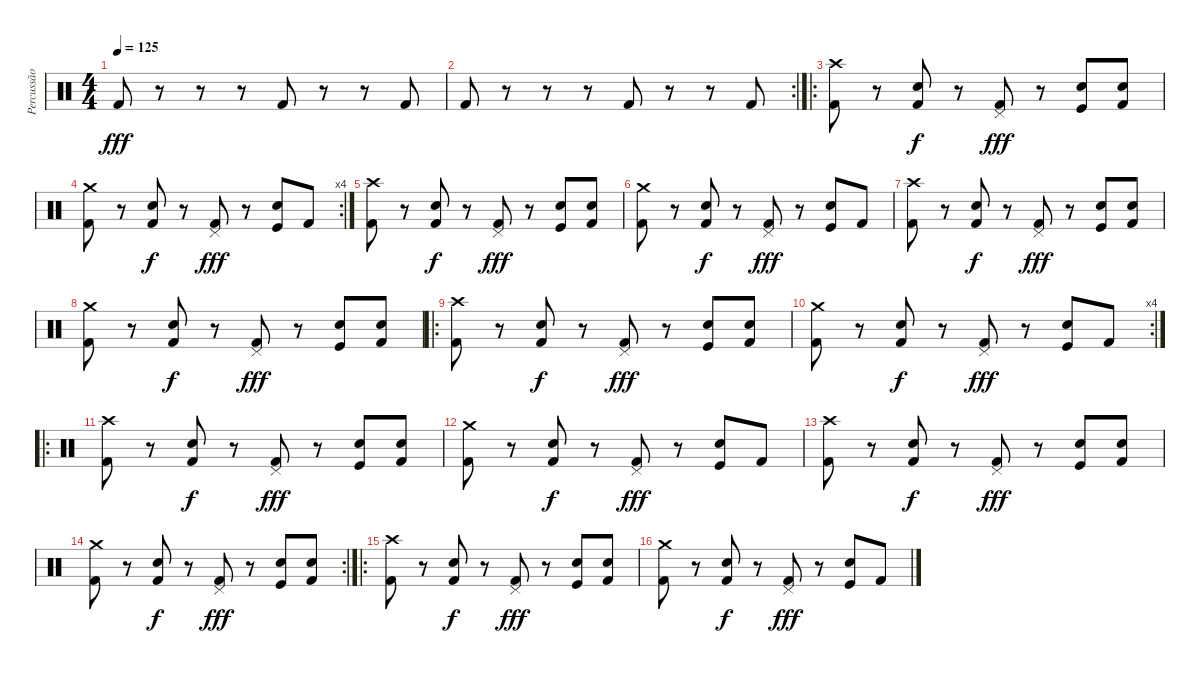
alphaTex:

\track ("Percussão" "Percussão") {instrument percussion}
\staff {score}
\articulation defaults
\ts (4 4)
\tempo 125
\clef neutral
\ks c "Kick (hit) 2".8{dy fff}
r.8 r.8 r.8 "Kick (hit) 2".8 r.8 r.8 "Kick (hit) 2".8 |
\rc 2 "Kick (hit) 2".8
r.8 r.8 r.8 "Kick (hit) 2".8 r.8 r.8 "Kick (hit) 2".8 |
\ro
("Kick (hit) 2" "Crash high (hit)").8 r.8 ("Kick (hit) 2" "Electric Snare (hit)").8{dy f} r.8 ("Kick (hit) 2" "Pedal Hi-Hat (hit)").8{dy fff} r.8 ("Kick (hit)" "Electric Snare (hit)").8 ("Kick (hit) 2" "Electric Snare (hit)").8 |
\rc 4
("Kick (hit) 2" "Crash medium (hit)").8 r.8 ("Kick (hit) 2" "Electric Snare (hit)").8{dy f} r.8 ("Kick (hit) 2" "Pedal Hi-Hat (hit)").8{dy fff} r.8 ("Kick (hit)" "Electric Snare (hit)").8 "Kick (hit) 2".8 |
("Kick (hit) 2" "Crash high (hit)").8 r.8 ("Kick (hit) 2" "Electric Snare (hit)").8{dy f} r.8 ("Kick (hit) 2" "Pedal Hi-Hat (hit)").8{dy fff} r.8 ("Kick (hit)" "Electric Snare (hit)").8 ("Kick (hit) 2" "Electric Snare (hit)").8 |
("Kick (hit) 2" "Crash medium (hit)").8 r.8 ("Kick (hit) 2" "Electric Snare (hit)").8{dy f} r.8 ("Kick (hit) 2" "Pedal Hi-Hat (hit)").8{dy fff} r.8 ("Kick (hit)" "Electric Snare (hit)").8 "Kick (hit) 2".8 |
("Kick (hit) 2" "Crash high (hit)").8 r.8 ("Kick (hit) 2" "Electric Snare (hit)").8{dy f} r.8 ("Kick (hit) 2" "Pedal Hi-Hat (hit)").8{dy fff} r.8 ("Kick (hit)" "Electric Snare (hit)").8 ("Kick (hit) 2" "Electric Snare (hit)").8 |
("Kick (hit) 2" "Crash medium (hit)").8 r.8 ("Kick (hit) 2" "Electric Snare (hit)").8{dy f} r.8 ("Kick (hit) 2" "Pedal Hi-Hat (hit)").8{dy fff} r.8 ("Kick (hit)" "Electric Snare (hit)").8 ("Kick (hit) 2" "Snare (hit) 2").8 |
\ro
("Kick (hit) 2" "Crash high (hit)").8 r.8 ("Kick (hit) 2" "Electric Snare (hit)").8{dy f} r.8 ("Kick (hit) 2" "Pedal Hi-Hat (hit)").8{dy fff} r.8 ("Kick (hit)" "Electric Snare (hit)").8 ("Kick (hit) 2" "Electric Snare (hit)").8 |
\rc 4
("Kick (hit) 2" "Crash medium (hit)").8 r.8 ("Kick (hit) 2" "Electric Snare (hit)").8{dy f} r.8 ("Kick (hit) 2" "Pedal Hi-Hat (hit)").8{dy fff} r.8 ("Kick (hit)" "Electric Snare (hit)").8 "Kick (hit) 2".8 |
\ro
("Kick (hit) 2" "Crash high (hit)").8 r.8 ("Kick (hit) 2" "Electric Snare (hit)").8{dy f} r.8 ("Kick (hit) 2" "Pedal Hi-Hat (hit)").8{dy fff} r.8 ("Kick (hit)" "Electric Snare (hit)").8 ("Kick (hit) 2" "Electric Snare (hit)").8 |
("Kick (hit) 2" "Crash medium (hit)").8 r.8 ("Kick (hit) 2" "Electric Snare (hit)").8{dy f} r.8 ("Kick (hit) 2" "Pedal Hi-Hat (hit)").8{dy fff} r.8 ("Kick (hit)" "Electric Snare (hit)").8 "Kick (hit) 2".8 |
("Kick (hit) 2" "Crash high (hit)").8 r.8 ("Kick (hit) 2" "Electric Snare (hit)").8{dy f} r.8 ("Kick (hit) 2" "Pedal Hi-Hat (hit)").8{dy fff} r.8 ("Kick (hit)" "Electric Snare (hit)").8 ("Kick (hit) 2" "Electric Snare (hit)").8 |
\rc 2
("Kick (hit) 2" "Crash medium (hit)").8 r.8 ("Kick (hit) 2" "Electric Snare (hit)").8{dy f} r.8 ("Kick (hit) 2" "Pedal Hi-Hat (hit)").8{dy fff} r.8 ("Kick (hit)" "Electric Snare (hit)").8 ("Kick (hit) 2" "Snare (hit) 2").8 |
\ro
("Kick (hit) 2" "Crash high (hit)").8 r.8 ("Kick (hit) 2" "Electric Snare (hit)").8{dy f} r.8 ("Kick (hit) 2" "Pedal Hi-Hat (hit)").8{dy fff} r.8 ("Kick (hit)" "Electric Snare (hit)").8 ("Kick (hit) 2" "Electric Snare (hit)").8 |
("Kick (hit) 2" "Crash medium (hit)").8 r.8 ("Kick (hit) 2" "Electric Snare (hit)").8{dy f} r.8 ("Kick (hit) 2" "Pedal Hi-Hat (hit)").8{dy fff} r.8 ("Kick (hit)" "Electric Snare (hit)").8 "Kick (hit) 2".8
